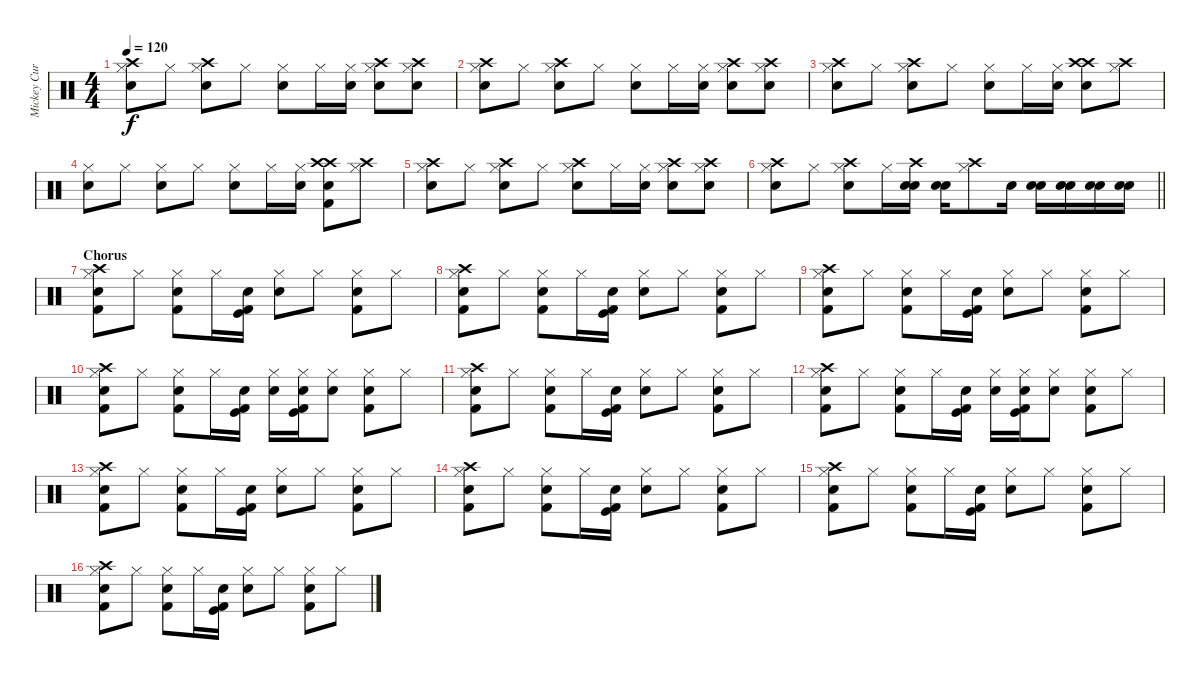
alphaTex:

\track ("Mickey Curry" "Mickey Cur") {instrument percussion}
\staff {score}
\articulation defaults
\ts (4 4)
\tempo 120
\clef neutral
\ks c
("Hi-Hat (closed)" "Snare (hit) 2" "Crash high (hit)").8{dy f} "Hi-Hat (closed)".8 ("Hi-Hat (closed)" "Snare (hit) 2" "Crash high (hit)").8 "Hi-Hat (closed)".8 ("Hi-Hat (closed)" "Snare (hit) 2").8 "Hi-Hat (closed)".16 ("Hi-Hat (closed)" "Electric Snare (hit)").16 ("Hi-Hat (closed)" "Snare (hit) 2" "Crash high (hit)").8 ("Hi-Hat (closed)" "Snare (hit) 2" "Crash high (hit)").8 |
("Hi-Hat (closed)" "Snare (hit) 2" "Crash high (hit)").8 "Hi-Hat (closed)".8 ("Hi-Hat (closed)" "Snare (hit) 2" "Crash high (hit)").8 "Hi-Hat (closed)".8 ("Hi-Hat (closed)" "Snare (hit) 2").8 "Hi-Hat (closed)".16 ("Hi-Hat (closed)" "Electric Snare (hit)").16 ("Hi-Hat (closed)" "Snare (hit) 2" "Crash high (hit)").8 ("Hi-Hat (closed)" "Snare (hit) 2" "Crash high (hit)").8 |
("Hi-Hat (closed)" "Snare (hit) 2" "Crash high (hit)").8 "Hi-Hat (closed)".8 ("Hi-Hat (closed)" "Snare (hit) 2" "Crash high (hit)").8 "Hi-Hat (closed)".8 ("Hi-Hat (closed)" "Snare (hit) 2").8 "Hi-Hat (closed)".16 ("Hi-Hat (closed)" "Electric Snare (hit)").16 ("Crash high (hit)" "Snare (hit) 2" "Crash high (hit)").8 ("Hi-Hat (closed)" "Crash high (hit)").8 |
("Hi-Hat (closed)" "Snare (hit) 2").8 "Hi-Hat (closed)".8 ("Hi-Hat (closed)" "Snare (hit) 2").8 "Hi-Hat (closed)".8 ("Hi-Hat (closed)" "Snare (hit) 2").8 "Hi-Hat (closed)".16 ("Hi-Hat (closed)" "Electric Snare (hit)").16 ("Crash high (hit)" "Snare (hit) 2" "Kick (hit) 2" "Crash high (hit)").8 ("Hi-Hat (closed)" "Crash high (hit)").8 |
("Hi-Hat (closed)" "Snare (hit) 2" "Crash high (hit)").8 "Hi-Hat (closed)".8 ("Hi-Hat (closed)" "Snare (hit) 2" "Crash high (hit)").8 "Hi-Hat (closed)".8 ("Hi-Hat (closed)" "Snare (hit) 2" "Crash high (hit)").8 "Hi-Hat (closed)".16 ("Hi-Hat (closed)" "Electric Snare (hit)").16 ("Hi-Hat (closed)" "Snare (hit) 2" "Crash high (hit)").8 ("Hi-Hat (closed)" "Snare (hit) 2" "Crash high (hit)").8 |
\barLineRight lightlight
("Hi-Hat (closed)" "Snare (hit) 2" "Crash high (hit)").8 "Hi-Hat (closed)".8 ("Hi-Hat (closed)" "Snare (hit) 2" "Crash high (hit)").8 "Hi-Hat (closed)".16 ("Snare (hit) 2" "Snare (hit) 2" "Crash high (hit)").16 ("Snare (hit) 2" "Snare (hit) 2").16 ("Hi-Hat (closed)" "Crash high (hit)").8 "Snare (hit) 2".16 ("Snare (hit) 2" "Snare (hit) 2").16 ("Snare (hit) 2" "Snare (hit) 2").16 ("Snare (hit) 2" "Snare (hit) 2").16 ("Snare (hit) 2" "Snare (hit) 2").16 |
\section ("" "Chorus")
("Hi-Hat (closed)" "Snare (hit) 2" "Kick (hit) 2" "Crash high (hit)").8 "Hi-Hat (closed)".8 ("Hi-Hat (closed)" "Snare (hit) 2" "Kick (hit) 2").8 "Hi-Hat (closed)".16 ("Kick (hit)" "Kick (hit) 2" "Electric Snare (hit)").16 ("Hi-Hat (closed)" "Snare (hit) 2").8 "Hi-Hat (closed)".8 ("Hi-Hat (closed)" "Snare (hit) 2" "Kick (hit) 2").8 "Hi-Hat (closed)".8 |
("Hi-Hat (closed)" "Snare (hit) 2" "Kick (hit) 2" "Crash high (hit)").8 "Hi-Hat (closed)".8 ("Hi-Hat (closed)" "Snare (hit) 2" "Kick (hit) 2").8 "Hi-Hat (closed)".16 ("Kick (hit)" "Kick (hit) 2" "Electric Snare (hit)").16 ("Hi-Hat (closed)" "Snare (hit) 2").8 "Hi-Hat (closed)".8 ("Hi-Hat (closed)" "Snare (hit) 2" "Kick (hit) 2").8 "Hi-Hat (closed)".8 |
("Hi-Hat (closed)" "Snare (hit) 2" "Kick (hit) 2" "Crash high (hit)").8 "Hi-Hat (closed)".8 ("Hi-Hat (closed)" "Snare (hit) 2" "Kick (hit) 2").8 "Hi-Hat (closed)".16 ("Kick (hit)" "Kick (hit) 2" "Electric Snare (hit)").16 ("Hi-Hat (closed)" "Snare (hit) 2").8 "Hi-Hat (closed)".8 ("Hi-Hat (closed)" "Snare (hit) 2" "Kick (hit) 2").8 "Hi-Hat (closed)".8 |
("Hi-Hat (closed)" "Snare (hit) 2" "Kick (hit) 2" "Crash high (hit)").8 "Hi-Hat (closed)".8 ("Hi-Hat (closed)" "Snare (hit) 2" "Kick (hit) 2").8 "Hi-Hat (closed)".16 ("Kick (hit)" "Kick (hit) 2" "Electric Snare (hit)").16 ("Hi-Hat (closed)" "Snare (hit) 2").16 ("Hi-Hat (closed)" "Kick (hit)" "Kick (hit) 2" "Electric Snare (hit)").16 ("Hi-Hat (closed)" "Snare (hit) 2").8 ("Hi-Hat (closed)" "Snare (hit) 2" "Kick (hit) 2").8 "Hi-Hat (closed)".8 |
("Hi-Hat (closed)" "Snare (hit) 2" "Kick (hit) 2" "Crash high (hit)").8 "Hi-Hat (closed)".8 ("Hi-Hat (closed)" "Snare (hit) 2" "Kick (hit) 2").8 "Hi-Hat (closed)".16 ("Kick (hit)" "Kick (hit) 2" "Electric Snare (hit)").16 ("Hi-Hat (closed)" "Snare (hit) 2").8 "Hi-Hat (closed)".8 ("Hi-Hat (closed)" "Snare (hit) 2" "Kick (hit) 2").8 "Hi-Hat (closed)".8 |
("Hi-Hat (closed)" "Snare (hit) 2" "Kick (hit) 2" "Crash high (hit)").8 "Hi-Hat (closed)".8 ("Hi-Hat (closed)" "Snare (hit) 2" "Kick (hit) 2").8 "Hi-Hat (closed)".16 ("Kick (hit)" "Kick (hit) 2" "Electric Snare (hit)").16 ("Hi-Hat (closed)" "Snare (hit) 2").16 ("Hi-Hat (closed)" "Kick (hit)" "Kick (hit) 2" "Electric Snare (hit)").16 ("Hi-Hat (closed)" "Snare (hit) 2").8 ("Hi-Hat (closed)" "Snare (hit) 2" "Kick (hit) 2").8 "Hi-Hat (closed)".8 |
("Hi-Hat (closed)" "Snare (hit) 2" "Kick (hit) 2" "Crash high (hit)").8 "Hi-Hat (closed)".8 ("Hi-Hat (closed)" "Snare (hit) 2" "Kick (hit) 2").8 "Hi-Hat (closed)".16 ("Kick (hit)" "Kick (hit) 2" "Electric Snare (hit)").16 ("Hi-Hat (closed)" "Snare (hit) 2").8 "Hi-Hat (closed)".8 ("Hi-Hat (closed)" "Snare (hit) 2" "Kick (hit) 2").8 "Hi-Hat (closed)".8 |
("Hi-Hat (closed)" "Snare (hit) 2" "Kick (hit) 2" "Crash high (hit)").8 "Hi-Hat (closed)".8 ("Hi-Hat (closed)" "Snare (hit) 2" "Kick (hit) 2").8 "Hi-Hat (closed)".16 ("Kick (hit)" "Kick (hit) 2" "Electric Snare (hit)").16 ("Hi-Hat (closed)" "Snare (hit) 2").8 "Hi-Hat (closed)".8 ("Hi-Hat (closed)" "Snare (hit) 2" "Kick (hit) 2").8 "Hi-Hat (closed)".8 |
("Hi-Hat (closed)" "Snare (hit) 2" "Kick (hit) 2" "Crash high (hit)").8 "Hi-Hat (closed)".8 ("Hi-Hat (closed)" "Snare (hit) 2" "Kick (hit) 2").8 "Hi-Hat (closed)".16 ("Kick (hit)" "Kick (hit) 2" "Electric Snare (hit)").16 ("Hi-Hat (closed)" "Snare (hit) 2").8 "Hi-Hat (closed)".8 ("Hi-Hat (closed)" "Snare (hit) 2" "Kick (hit) 2").8 "Hi-Hat (closed)".8 |
("Hi-Hat (closed)" "Snare (hit) 2" "Kick (hit) 2" "Crash high (hit)").8 "Hi-Hat (closed)".8 ("Hi-Hat (closed)" "Snare (hit) 2" "Kick (hit) 2").8 "Hi-Hat (closed)".16 ("Kick (hit)" "Kick (hit) 2" "Electric Snare (hit)").16 ("Hi-Hat (closed)" "Snare (hit) 2").8 "Hi-Hat (closed)".8 ("Hi-Hat (closed)" "Snare (hit) 2" "Kick (hit) 2").8 "Hi-Hat (closed)".8
